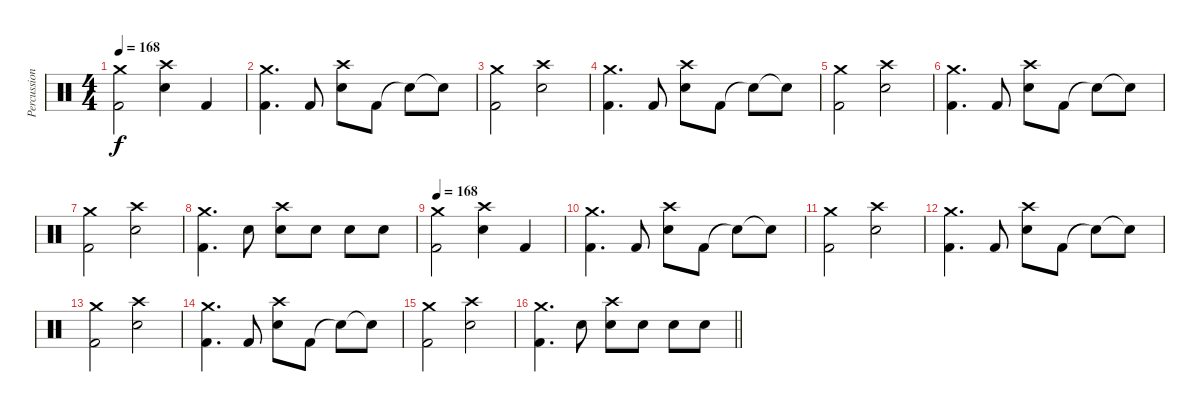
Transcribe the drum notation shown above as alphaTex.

\track ("Percussion" "Percussion") {instrument percussion}
\staff {score}
\articulation defaults
\ts (4 4)
\section ("" "")
\tempo 168
\clef neutral
\ks c
("Crash medium (hit)" "Kick (hit) 2").2{dy f} ("Crash high (hit)" "Electric Snare (hit)").4 "Kick (hit) 2".4 |
("Crash medium (hit)" "Kick (hit) 2").4{d} "Kick (hit) 2".8 ("Crash high (hit)" "Electric Snare (hit)").8 "Kick (hit) 2".8 "Snare (hit)"{t}.8 "Snare (hit)"{t}.8 |
("Crash medium (hit)" "Kick (hit) 2").2 ("Crash high (hit)" "Electric Snare (hit)").2 |
("Crash medium (hit)" "Kick (hit) 2").4{d} "Kick (hit) 2".8 ("Crash high (hit)" "Electric Snare (hit)").8 "Kick (hit) 2".8 "Snare (hit)"{t}.8 "Snare (hit)"{t}.8 |
("Crash medium (hit)" "Kick (hit) 2").2 ("Crash high (hit)" "Electric Snare (hit)").2 |
("Crash medium (hit)" "Kick (hit) 2").4{d} "Kick (hit) 2".8 ("Crash high (hit)" "Electric Snare (hit)").8 "Kick (hit) 2".8 "Snare (hit)"{t}.8 "Snare (hit)"{t}.8 |
("Crash medium (hit)" "Kick (hit) 2").2 ("Crash high (hit)" "Electric Snare (hit)").2 |
("Crash medium (hit)" "Kick (hit) 2").4{d} "Electric Snare (hit)".8 ("Crash high (hit)" "Electric Snare (hit)").8 "Electric Snare (hit)".8 "Electric Snare (hit)".8 "Electric Snare (hit)".8 |
\tempo 168
("Crash medium (hit)" "Kick (hit) 2").2 ("Crash high (hit)" "Electric Snare (hit)").4 "Kick (hit) 2".4 |
("Crash medium (hit)" "Kick (hit) 2").4{d} "Kick (hit) 2".8 ("Crash high (hit)" "Electric Snare (hit)").8 "Kick (hit) 2".8 "Snare (hit)"{t}.8 "Snare (hit)"{t}.8 |
("Crash medium (hit)" "Kick (hit) 2").2 ("Crash high (hit)" "Electric Snare (hit)").2 |
("Crash medium (hit)" "Kick (hit) 2").4{d} "Kick (hit) 2".8 ("Crash high (hit)" "Electric Snare (hit)").8 "Kick (hit) 2".8 "Snare (hit)"{t}.8 "Snare (hit)"{t}.8 |
("Crash medium (hit)" "Kick (hit) 2").2 ("Crash high (hit)" "Electric Snare (hit)").2 |
("Crash medium (hit)" "Kick (hit) 2").4{d} "Kick (hit) 2".8 ("Crash high (hit)" "Electric Snare (hit)").8 "Kick (hit) 2".8 "Snare (hit)"{t}.8 "Snare (hit)"{t}.8 |
("Crash medium (hit)" "Kick (hit) 2").2 ("Crash high (hit)" "Electric Snare (hit)").2 |
\barLineRight lightlight
("Crash medium (hit)" "Kick (hit) 2").4{d} "Electric Snare (hit)".8 ("Crash high (hit)" "Electric Snare (hit)").8 "Electric Snare (hit)".8 "Electric Snare (hit)".8 "Electric Snare (hit)".8
